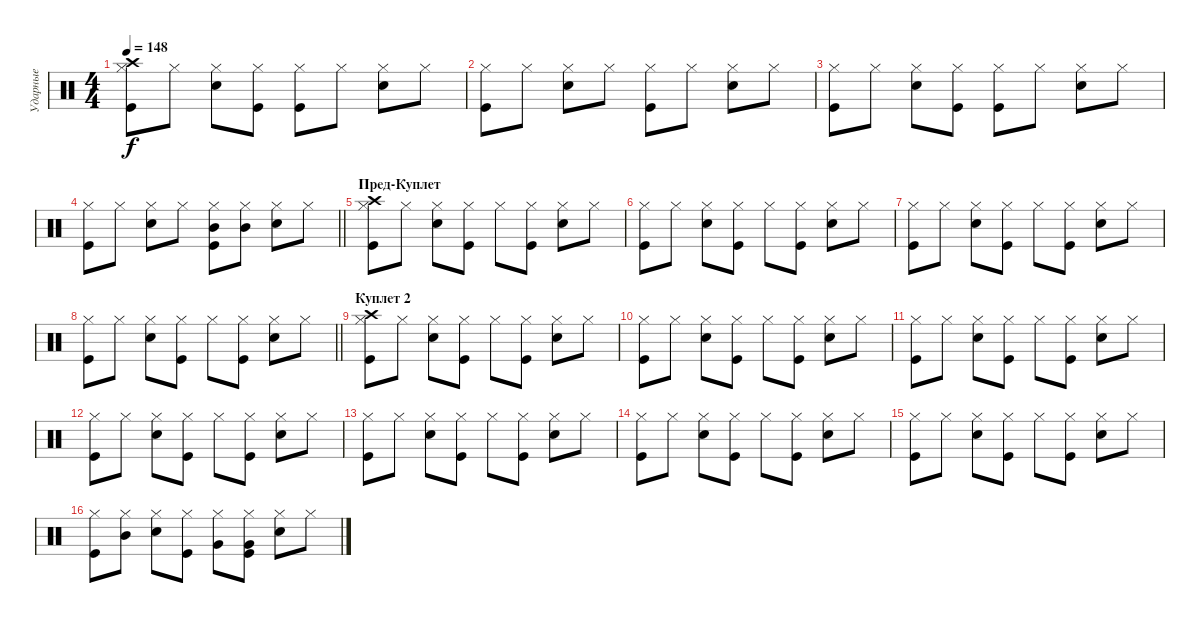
\track ("Ударные" "Ударные") {instrument percussion}
\staff {score}
\articulation defaults
\ts (4 4)
\tempo 148
\clef neutral
\ks c
("Kick (hit)" "Hi-Hat (closed)" "Crash high (hit)").8{dy f} "Hi-Hat (closed)".8 ("Snare (hit) 2" "Hi-Hat (closed)").8 ("Kick (hit)" "Hi-Hat (closed)").8 ("Kick (hit)" "Hi-Hat (closed)").8 "Hi-Hat (closed)".8 ("Snare (hit) 2" "Hi-Hat (closed)").8 "Hi-Hat (closed)".8 |
("Kick (hit)" "Hi-Hat (closed)").8 "Hi-Hat (closed)".8 ("Snare (hit) 2" "Hi-Hat (closed)").8 "Hi-Hat (closed)".8 ("Kick (hit)" "Hi-Hat (closed)").8 "Hi-Hat (closed)".8 ("Snare (hit) 2" "Hi-Hat (closed)").8 "Hi-Hat (closed)".8 |
("Kick (hit)" "Hi-Hat (closed)").8 "Hi-Hat (closed)".8 ("Snare (hit) 2" "Hi-Hat (closed)").8 ("Kick (hit)" "Hi-Hat (closed)").8 ("Kick (hit)" "Hi-Hat (closed)").8 "Hi-Hat (closed)".8 ("Snare (hit) 2" "Hi-Hat (closed)").8 "Hi-Hat (closed)".8 |
\barLineRight lightlight
("Kick (hit)" "Hi-Hat (closed)").8 "Hi-Hat (closed)".8 ("Snare (hit) 2" "Hi-Hat (closed)").8 "Hi-Hat (closed)".8 ("Kick (hit)" "Hi-Hat (closed)" "Mid Tom (hit)").8 ("Hi-Hat (closed)" "Mid Tom (hit)").8 ("Snare (hit) 2" "Hi-Hat (closed)").8 "Hi-Hat (closed)".8 |
\section ("" "Пред-Куплет")
("Kick (hit)" "Hi-Hat (closed)" "Crash high (hit)").8 "Hi-Hat (closed)".8 ("Snare (hit) 2" "Hi-Hat (closed)").8 ("Kick (hit)" "Hi-Hat (closed)").8 "Hi-Hat (closed)".8 ("Kick (hit)" "Hi-Hat (closed)").8 ("Snare (hit) 2" "Hi-Hat (closed)").8 "Hi-Hat (closed)".8 |
("Kick (hit)" "Hi-Hat (closed)").8 "Hi-Hat (closed)".8 ("Snare (hit) 2" "Hi-Hat (closed)").8 ("Kick (hit)" "Hi-Hat (closed)").8 "Hi-Hat (closed)".8 ("Kick (hit)" "Hi-Hat (closed)").8 ("Snare (hit) 2" "Hi-Hat (closed)").8 "Hi-Hat (closed)".8 |
("Kick (hit)" "Hi-Hat (closed)").8 "Hi-Hat (closed)".8 ("Snare (hit) 2" "Hi-Hat (closed)").8 ("Kick (hit)" "Hi-Hat (closed)").8 "Hi-Hat (closed)".8 ("Kick (hit)" "Hi-Hat (closed)").8 ("Snare (hit) 2" "Hi-Hat (closed)").8 "Hi-Hat (closed)".8 |
\barLineRight lightlight
("Kick (hit)" "Hi-Hat (closed)").8 "Hi-Hat (closed)".8 ("Snare (hit) 2" "Hi-Hat (closed)").8 ("Kick (hit)" "Hi-Hat (closed)").8 "Hi-Hat (closed)".8 ("Kick (hit)" "Hi-Hat (closed)").8 ("Snare (hit) 2" "Hi-Hat (closed)").8 "Hi-Hat (closed)".8 |
\section ("" "Куплет 2")
("Kick (hit)" "Hi-Hat (closed)" "Crash high (hit)").8 "Hi-Hat (closed)".8 ("Snare (hit) 2" "Hi-Hat (closed)").8 ("Kick (hit)" "Hi-Hat (closed)").8 "Hi-Hat (closed)".8 ("Kick (hit)" "Hi-Hat (closed)").8 ("Snare (hit) 2" "Hi-Hat (closed)").8 "Hi-Hat (closed)".8 |
("Kick (hit)" "Hi-Hat (closed)").8 "Hi-Hat (closed)".8 ("Snare (hit) 2" "Hi-Hat (closed)").8 ("Kick (hit)" "Hi-Hat (closed)").8 "Hi-Hat (closed)".8 ("Kick (hit)" "Hi-Hat (closed)").8 ("Snare (hit) 2" "Hi-Hat (closed)").8 "Hi-Hat (closed)".8 |
("Kick (hit)" "Hi-Hat (closed)").8 "Hi-Hat (closed)".8 ("Snare (hit) 2" "Hi-Hat (closed)").8 ("Kick (hit)" "Hi-Hat (closed)").8 "Hi-Hat (closed)".8 ("Kick (hit)" "Hi-Hat (closed)").8 ("Snare (hit) 2" "Hi-Hat (closed)").8 "Hi-Hat (closed)".8 |
("Kick (hit)" "Hi-Hat (closed)").8 "Hi-Hat (closed)".8 ("Snare (hit) 2" "Hi-Hat (closed)").8 ("Kick (hit)" "Hi-Hat (closed)").8 "Hi-Hat (closed)".8 ("Kick (hit)" "Hi-Hat (closed)").8 ("Snare (hit) 2" "Hi-Hat (closed)").8 "Hi-Hat (closed)".8 |
("Kick (hit)" "Hi-Hat (closed)").8 "Hi-Hat (closed)".8 ("Snare (hit) 2" "Hi-Hat (closed)").8 ("Kick (hit)" "Hi-Hat (closed)").8 "Hi-Hat (closed)".8 ("Kick (hit)" "Hi-Hat (closed)").8 ("Snare (hit) 2" "Hi-Hat (closed)").8 "Hi-Hat (closed)".8 |
("Kick (hit)" "Hi-Hat (closed)").8 "Hi-Hat (closed)".8 ("Snare (hit) 2" "Hi-Hat (closed)").8 ("Kick (hit)" "Hi-Hat (closed)").8 "Hi-Hat (closed)".8 ("Kick (hit)" "Hi-Hat (closed)").8 ("Snare (hit) 2" "Hi-Hat (closed)").8 "Hi-Hat (closed)".8 |
("Kick (hit)" "Hi-Hat (closed)").8 "Hi-Hat (closed)".8 ("Snare (hit) 2" "Hi-Hat (closed)").8 ("Kick (hit)" "Hi-Hat (closed)").8 "Hi-Hat (closed)".8 ("Kick (hit)" "Hi-Hat (closed)").8 ("Snare (hit) 2" "Hi-Hat (closed)").8 "Hi-Hat (closed)".8 |
("Kick (hit)" "Hi-Hat (closed)").8 ("Hi-Hat (closed)" "Mid Tom (hit)").8 ("Snare (hit) 2" "Hi-Hat (closed)").8 ("Kick (hit)" "Hi-Hat (closed)").8 ("Hi-Hat (closed)" "Very Low Tom (hit)").8 ("Kick (hit)" "Hi-Hat (closed)" "Very Low Tom (hit)").8 ("Snare (hit) 2" "Hi-Hat (closed)").8 "Hi-Hat (closed)".8
